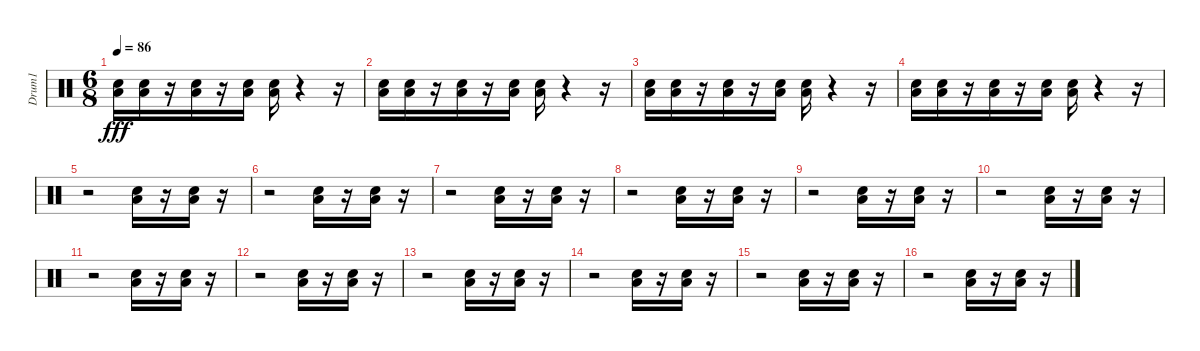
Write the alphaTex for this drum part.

\track ("Drum1" "Drum1") {instrument percussion}
\staff {score}
\articulation defaults
\ts (6 8)
\tempo 86
\clef neutral
\ks c
("Snare (hit) 2" "Low Floor Tom (hit)").16{dy fff} ("Snare (hit) 2" "Low Floor Tom (hit)").16{volume 5} r.16 ("Snare (hit) 2" "Low Floor Tom (hit)").16{volume 6} r.16 ("Snare (hit) 2" "Low Floor Tom (hit)").16{volume 6} ("Snare (hit) 2" "Low Floor Tom (hit)").16{volume 6} r.4 r.16 |
("Snare (hit) 2" "Low Floor Tom (hit)").16{volume 8} ("Snare (hit) 2" "Low Floor Tom (hit)").16{volume 8} r.16 ("Snare (hit) 2" "Low Floor Tom (hit)").16{volume 8} r.16 ("Snare (hit) 2" "Low Floor Tom (hit)").16{volume 8} ("Snare (hit) 2" "Low Floor Tom (hit)").16{volume 9} r.4 r.16 |
("Snare (hit) 2" "Low Floor Tom (hit)").16{volume 10} ("Snare (hit) 2" "Low Floor Tom (hit)").16{volume 10} r.16 ("Snare (hit) 2" "Low Floor Tom (hit)").16{volume 10} r.16 ("Snare (hit) 2" "Low Floor Tom (hit)").16{volume 11} ("Snare (hit) 2" "Low Floor Tom (hit)").16{volume 11} r.4 r.16 |
("Snare (hit) 2" "Low Floor Tom (hit)").16{volume 12} ("Snare (hit) 2" "Low Floor Tom (hit)").16 r.16 ("Snare (hit) 2" "Low Floor Tom (hit)").16 r.16 ("Snare (hit) 2" "Low Floor Tom (hit)").16 ("Snare (hit) 2" "Low Floor Tom (hit)").16 r.4 r.16 |
r.2 ("Snare (hit) 2" "Low Floor Tom (hit)").16{volume 9} r.16 ("Snare (hit) 2" "Low Floor Tom (hit)").16 r.16 |
r.2 ("Snare (hit) 2" "Low Floor Tom (hit)").16 r.16 ("Snare (hit) 2" "Low Floor Tom (hit)").16 r.16 |
r.2 ("Snare (hit) 2" "Low Floor Tom (hit)").16 r.16 ("Snare (hit) 2" "Low Floor Tom (hit)").16 r.16 |
r.2 ("Snare (hit) 2" "Low Floor Tom (hit)").16 r.16 ("Snare (hit) 2" "Low Floor Tom (hit)").16 r.16 |
r.2 ("Snare (hit) 2" "Low Floor Tom (hit)").16 r.16 ("Snare (hit) 2" "Low Floor Tom (hit)").16 r.16 |
r.2 ("Snare (hit) 2" "Low Floor Tom (hit)").16 r.16 ("Snare (hit) 2" "Low Floor Tom (hit)").16 r.16 |
r.2 ("Snare (hit) 2" "Low Floor Tom (hit)").16 r.16 ("Snare (hit) 2" "Low Floor Tom (hit)").16 r.16 |
r.2 ("Snare (hit) 2" "Low Floor Tom (hit)").16 r.16 ("Snare (hit) 2" "Low Floor Tom (hit)").16 r.16 |
r.2 ("Snare (hit) 2" "Low Floor Tom (hit)").16 r.16 ("Snare (hit) 2" "Low Floor Tom (hit)").16 r.16 |
r.2 ("Snare (hit) 2" "Low Floor Tom (hit)").16 r.16 ("Snare (hit) 2" "Low Floor Tom (hit)").16 r.16 |
r.2 ("Snare (hit) 2" "Low Floor Tom (hit)").16 r.16 ("Snare (hit) 2" "Low Floor Tom (hit)").16 r.16 |
r.2 ("Snare (hit) 2" "Low Floor Tom (hit)").16 r.16 ("Snare (hit) 2" "Low Floor Tom (hit)").16 r.16
